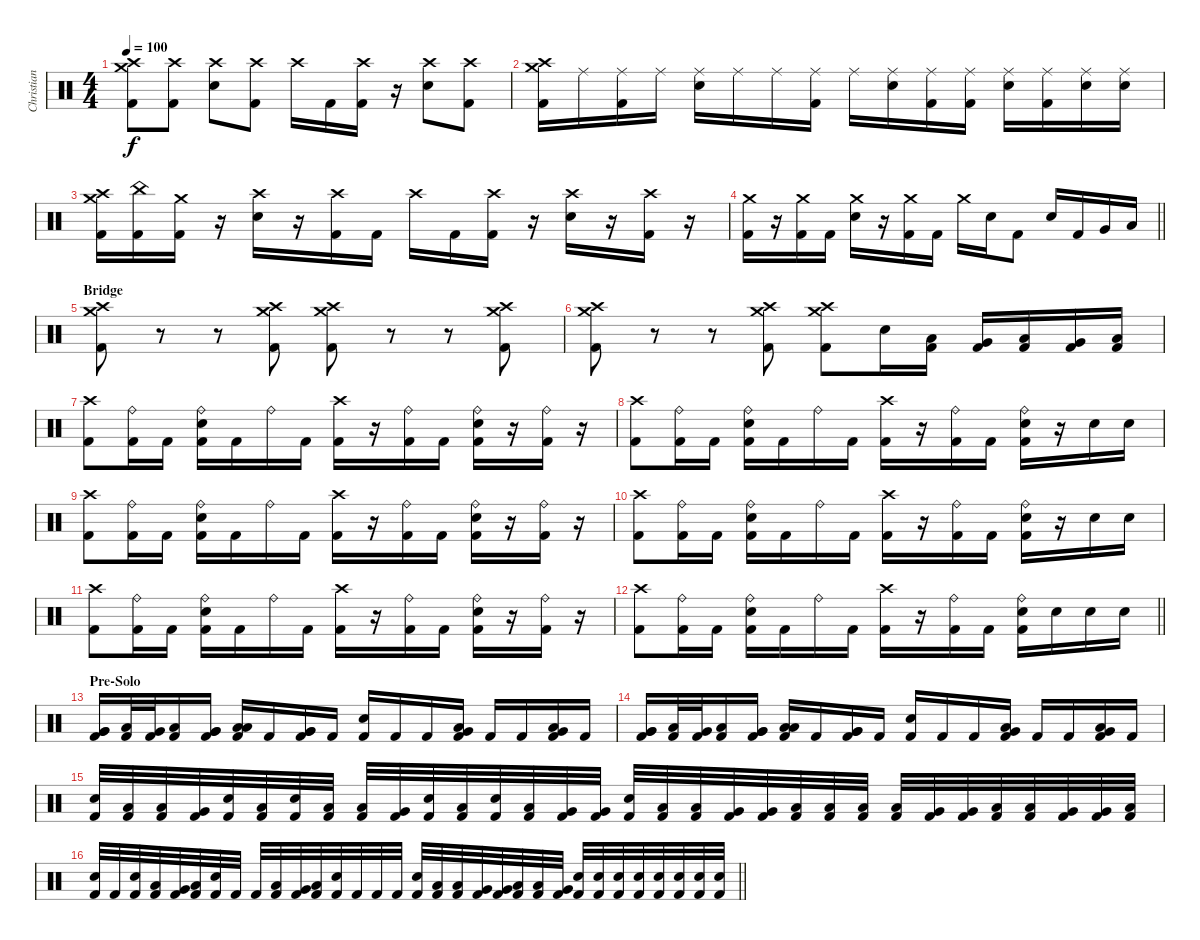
\track ("Christian 'CC' Coma" "Christian ") {instrument percussion}
\staff {score}
\articulation defaults
\ts (4 4)
\tempo 100
\clef neutral
\ks c
("Crash high (hit)" "Crash medium (hit)" "Kick (hit) 2").8{dy f} ("Crash high (hit)" "Kick (hit) 2").8 ("Crash high (hit)" "Electric Snare (hit)").8 ("Crash high (hit)" "Kick (hit) 2").8 "Crash high (hit)".16 "Kick (hit) 2".16 ("Crash high (hit)" "Kick (hit) 2").16 r.16 ("Crash high (hit)" "Electric Snare (hit)").8 ("Crash high (hit)" "Kick (hit) 2").8 |
("Crash medium (hit)" "Crash high (hit)" "Kick (hit) 2").16 "Ride (middle)".16 ("Ride (middle)" "Kick (hit) 2").16 "Ride (middle)".16 ("Ride (middle)" "Electric Snare (hit)").16 "Ride (middle)".16 "Ride (middle)".16 ("Ride (middle)" "Kick (hit) 2").16 "Ride (middle)".16 ("Ride (middle)" "Electric Snare (hit)").16 ("Ride (middle)" "Kick (hit) 2").16 ("Ride (middle)" "Kick (hit) 2").16 ("Ride (middle)" "Electric Snare (hit)").16 ("Ride (middle)" "Kick (hit) 2").16 ("Ride (middle)" "Electric Snare (hit)").16 ("Ride (middle)" "Electric Snare (hit)").16 |
("Crash high (hit)" "Crash medium (hit)" "Kick (hit) 2").16 ("China (hit)" "Kick (hit) 2").16 ("Crash medium (hit)" "Kick (hit) 2").16 r.16 ("Crash high (hit)" "Electric Snare (hit)").16 r.16 ("Crash high (hit)" "Kick (hit) 2").16 "Kick (hit) 2".16 "Crash high (hit)".16 "Kick (hit) 2".16 ("Crash high (hit)" "Kick (hit) 2").16 r.16 ("Crash high (hit)" "Electric Snare (hit)").16 r.16 ("Crash high (hit)" "Kick (hit) 2").16 r.16 |
\barLineRight lightlight
("Crash medium (hit)" "Kick (hit) 2").16 r.16 ("Crash medium (hit)" "Kick (hit) 2").16 "Kick (hit) 2".16 ("Crash medium (hit)" "Electric Snare (hit)").16 r.16 ("Crash medium (hit)" "Kick (hit) 2").16 "Kick (hit) 2".16 "Crash medium (hit)".16 "Electric Snare (hit)".16 "Kick (hit) 2".8 "Electric Snare (hit)".16 "Kick (hit) 2".16 "Very Low Tom (hit)".16 "Low Floor Tom (hit)".16 |
\section ("" "Bridge")
("Crash high (hit)" "Crash medium (hit)" "Kick (hit) 2").8 r.8 r.8 ("Crash high (hit)" "Crash medium (hit)" "Kick (hit) 2").8 ("Crash high (hit)" "Crash medium (hit)" "Kick (hit) 2").8 r.8 r.8 ("Crash high (hit)" "Crash medium (hit)" "Kick (hit) 2").8 |
("Crash high (hit)" "Crash medium (hit)" "Kick (hit) 2").8 r.8 r.8 ("Crash high (hit)" "Crash medium (hit)" "Kick (hit) 2").8 ("Crash high (hit)" "Crash medium (hit)" "Kick (hit) 2").8 "Electric Snare (hit)".16 ("Low Tom (hit)" "Kick (hit) 2").16 ("Very Low Tom (hit)" "Kick (hit) 2").16 ("Low Floor Tom (hit)" "Kick (hit) 2").16 ("Very Low Tom (hit)" "Kick (hit) 2").16 ("Low Floor Tom (hit)" "Kick (hit) 2").16 |
("Crash high (hit)" "Kick (hit) 2").8 ("Ride (bell)" "Kick (hit) 2").16 "Kick (hit) 2".16 ("Ride (bell)" "Electric Snare (hit)" "Kick (hit) 2").16 "Kick (hit) 2".16 "Ride (bell)".16 "Kick (hit) 2".16 ("Crash high (hit)" "Kick (hit) 2").16 r.16 ("Ride (bell)" "Kick (hit) 2").16 "Kick (hit) 2".16 ("Ride (bell)" "Electric Snare (hit)" "Kick (hit) 2").16 r.16 ("Ride (bell)" "Kick (hit) 2").16 r.16 |
("Crash high (hit)" "Kick (hit) 2").8 ("Ride (bell)" "Kick (hit) 2").16 "Kick (hit) 2".16 ("Ride (bell)" "Electric Snare (hit)" "Kick (hit) 2").16 "Kick (hit) 2".16 "Ride (bell)".16 "Kick (hit) 2".16 ("Crash high (hit)" "Kick (hit) 2").16 r.16 ("Ride (bell)" "Kick (hit) 2").16 "Kick (hit) 2".16 ("Ride (bell)" "Electric Snare (hit)" "Kick (hit) 2").16 r.16 "Electric Snare (hit)".16 "Electric Snare (hit)".16 |
("Crash high (hit)" "Kick (hit) 2").8 ("Ride (bell)" "Kick (hit) 2").16 "Kick (hit) 2".16 ("Ride (bell)" "Electric Snare (hit)" "Kick (hit) 2").16 "Kick (hit) 2".16 "Ride (bell)".16 "Kick (hit) 2".16 ("Crash high (hit)" "Kick (hit) 2").16 r.16 ("Ride (bell)" "Kick (hit) 2").16 "Kick (hit) 2".16 ("Ride (bell)" "Electric Snare (hit)" "Kick (hit) 2").16 r.16 ("Ride (bell)" "Kick (hit) 2").16 r.16 |
("Crash high (hit)" "Kick (hit) 2").8 ("Ride (bell)" "Kick (hit) 2").16 "Kick (hit) 2".16 ("Ride (bell)" "Electric Snare (hit)" "Kick (hit) 2").16 "Kick (hit) 2".16 "Ride (bell)".16 "Kick (hit) 2".16 ("Crash high (hit)" "Kick (hit) 2").16 r.16 ("Ride (bell)" "Kick (hit) 2").16 "Kick (hit) 2".16 ("Ride (bell)" "Electric Snare (hit)" "Kick (hit) 2").16 r.16 "Electric Snare (hit)".16 "Electric Snare (hit)".16 |
("Crash high (hit)" "Kick (hit) 2").8 ("Ride (bell)" "Kick (hit) 2").16 "Kick (hit) 2".16 ("Ride (bell)" "Electric Snare (hit)" "Kick (hit) 2").16 "Kick (hit) 2".16 "Ride (bell)".16 "Kick (hit) 2".16 ("Crash high (hit)" "Kick (hit) 2").16 r.16 ("Ride (bell)" "Kick (hit) 2").16 "Kick (hit) 2".16 ("Ride (bell)" "Electric Snare (hit)" "Kick (hit) 2").16 r.16 ("Ride (bell)" "Kick (hit) 2").16 r.16 |
\barLineRight lightlight
("Crash high (hit)" "Kick (hit) 2").8 ("Ride (bell)" "Kick (hit) 2").16 "Kick (hit) 2".16 ("Ride (bell)" "Electric Snare (hit)" "Kick (hit) 2").16 "Kick (hit) 2".16 "Ride (bell)".16 "Kick (hit) 2".16 ("Crash high (hit)" "Kick (hit) 2").16 r.16 ("Ride (bell)" "Kick (hit) 2").16 "Kick (hit) 2".16 ("Ride (bell)" "Electric Snare (hit)" "Kick (hit) 2").16 "Electric Snare (hit)".16 "Electric Snare (hit)".16 "Electric Snare (hit)".16 |
\section ("" "Pre-Solo")
("Very Low Tom (hit)" "Very Low Tom (hit)" "Kick (hit) 2").16 ("Low Tom (hit)" "Kick (hit) 2").32 ("Very Low Tom (hit)" "Kick (hit) 2").32 ("Low Floor Tom (hit)" "Kick (hit) 2").16 ("Very Low Tom (hit)" "Very Low Tom (hit)" "Kick (hit) 2").16 ("Low Floor Tom (hit)" "Low Floor Tom (hit)" "Kick (hit) 2").16 "Kick (hit) 2".16 ("Very Low Tom (hit)" "Very Low Tom (hit)" "Kick (hit) 2").16 "Kick (hit) 2".16 ("Electric Snare (hit)" "Kick (hit) 2").16 "Kick (hit) 2".16 "Kick (hit) 2".16 ("Low Tom (hit)" "Very Low Tom (hit)" "Kick (hit) 2").16 "Kick (hit) 2".16 "Kick (hit) 2".16 ("Low Floor Tom (hit)" "Very Low Tom (hit)" "Kick (hit) 2").16 "Kick (hit) 2".16 |
("Very Low Tom (hit)" "Very Low Tom (hit)" "Kick (hit) 2").16 ("Low Tom (hit)" "Kick (hit) 2").32 ("Very Low Tom (hit)" "Kick (hit) 2").32 ("Low Floor Tom (hit)" "Kick (hit) 2").16 ("Very Low Tom (hit)" "Very Low Tom (hit)" "Kick (hit) 2").16 ("Low Floor Tom (hit)" "Low Floor Tom (hit)" "Kick (hit) 2").16 "Kick (hit) 2".16 ("Very Low Tom (hit)" "Very Low Tom (hit)" "Kick (hit) 2").16 "Kick (hit) 2".16 ("Electric Snare (hit)" "Kick (hit) 2").16 "Kick (hit) 2".16 "Kick (hit) 2".16 ("Low Tom (hit)" "Very Low Tom (hit)" "Kick (hit) 2").16 "Kick (hit) 2".16 "Kick (hit) 2".16 ("Low Floor Tom (hit)" "Very Low Tom (hit)" "Kick (hit) 2").16 "Kick (hit) 2".16 |
("Electric Snare (hit)" "Kick (hit) 2").32 ("Low Tom (hit)" "Kick (hit) 2").32 ("Low Tom (hit)" "Kick (hit) 2").32 ("Very Low Tom (hit)" "Kick (hit) 2").32 ("Electric Snare (hit)" "Kick (hit) 2").32 ("Low Tom (hit)" "Kick (hit) 2").32 ("Electric Snare (hit)" "Kick (hit) 2").32 ("Low Tom (hit)" "Kick (hit) 2").32 ("Low Tom (hit)" "Kick (hit) 2").32 ("Very Low Tom (hit)" "Kick (hit) 2").32 ("Electric Snare (hit)" "Kick (hit) 2").32 ("Low Tom (hit)" "Kick (hit) 2").32 ("Electric Snare (hit)" "Kick (hit) 2").32 ("Low Tom (hit)" "Kick (hit) 2").32 ("Very Low Tom (hit)" "Kick (hit) 2").32 ("Very Low Tom (hit)" "Kick (hit) 2").32 ("Electric Snare (hit)" "Kick (hit) 2").32 ("Low Tom (hit)" "Kick (hit) 2").32 ("Low Tom (hit)" "Kick (hit) 2").32 ("Very Low Tom (hit)" "Kick (hit) 2").32 ("Very Low Tom (hit)" "Kick (hit) 2").32 ("Low Floor Tom (hit)" "Kick (hit) 2").32 ("Low Floor Tom (hit)" "Kick (hit) 2").32 ("Low Tom (hit)" "Kick (hit) 2").32 ("Low Tom (hit)" "Kick (hit) 2").32 ("Very Low Tom (hit)" "Kick (hit) 2").32 ("Very Low Tom (hit)" "Kick (hit) 2").32 ("Low Floor Tom (hit)" "Kick (hit) 2").32 ("Low Floor Tom (hit)" "Kick (hit) 2").32 ("Very Low Tom (hit)" "Kick (hit) 2").32 ("Very Low Tom (hit)" "Kick (hit) 2").32 ("Low Floor Tom (hit)" "Kick (hit) 2").32 |
\barLineRight lightlight
("Electric Snare (hit)" "Kick (hit) 2").32 "Kick (hit) 2".32 ("Electric Snare (hit)" "Kick (hit) 2").32 ("Low Tom (hit)" "Kick (hit) 2").32 ("Very Low Tom (hit)" "Kick (hit) 2").32 ("Low Floor Tom (hit)" "Kick (hit) 2").32 ("Electric Snare (hit)" "Kick (hit) 2").32 "Kick (hit) 2".32 "Kick (hit) 2".32 ("Low Tom (hit)" "Kick (hit) 2").32 ("Very Low Tom (hit)" "Kick (hit) 2").32 ("Low Floor Tom (hit)" "Kick (hit) 2").32 ("Electric Snare (hit)" "Kick (hit) 2").32 "Kick (hit) 2".32 "Kick (hit) 2".32 "Kick (hit) 2".32 ("Electric Snare (hit)" "Kick (hit) 2").32 ("Low Tom (hit)" "Kick (hit) 2").32 ("Low Tom (hit)" "Kick (hit) 2").32 ("Very Low Tom (hit)" "Kick (hit) 2").32 ("Very Low Tom (hit)" "Kick (hit) 2").32 ("Low Floor Tom (hit)" "Kick (hit) 2").32 ("Low Floor Tom (hit)" "Kick (hit) 2").32 ("Very Low Tom (hit)" "Kick (hit) 2").32 ("Electric Snare (hit)" "Kick (hit) 2").32 ("Electric Snare (hit)" "Kick (hit) 2").32 ("Electric Snare (hit)" "Kick (hit) 2").32 ("Electric Snare (hit)" "Kick (hit) 2").32 ("Electric Snare (hit)" "Kick (hit) 2").32 ("Electric Snare (hit)" "Kick (hit) 2").32 ("Electric Snare (hit)" "Kick (hit) 2").32 ("Electric Snare (hit)" "Kick (hit) 2").32
